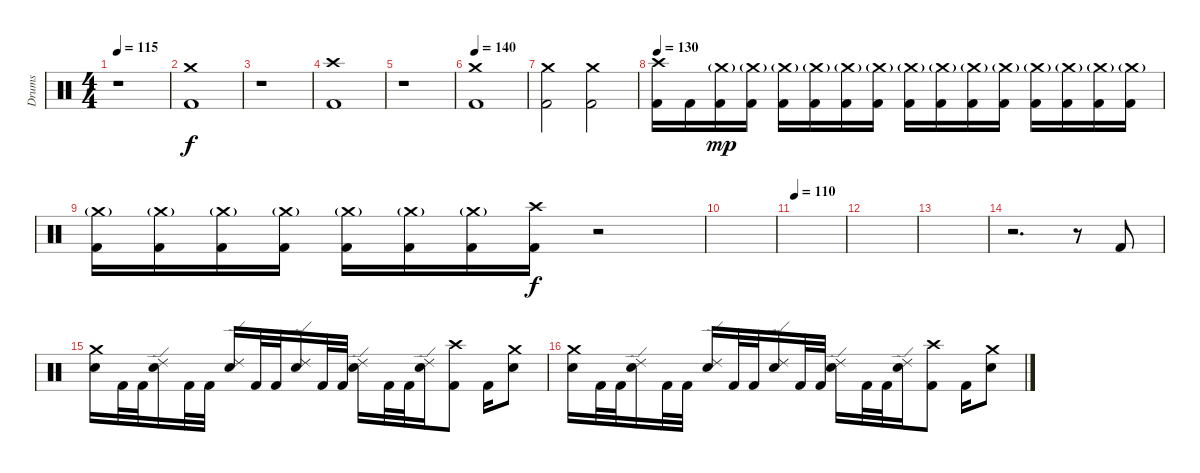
\track ("Drums" "Drums") {instrument percussion}
\staff {score}
\articulation defaults
\ts (4 4)
\tempo 115
\clef neutral
\ks c
r.1{dy f} |
("Crash medium (hit)" "Kick (hit) 2").1 |
r.1 |
("Crash high (hit)" "Kick (hit) 2").1 |
r.1 |
\tempo 140
("Crash medium (hit)" "Kick (hit) 2").1 |
("Crash medium (hit)" "Kick (hit) 2").2 ("Crash medium (hit)" "Kick (hit) 2").2 |
\tempo 130
("Crash high (hit)" "Kick (hit) 2").16 "Kick (hit) 2".16 ("Crash medium (hit)"{g} "Kick (hit) 2").16{dy mp} ("Crash medium (hit)"{g} "Kick (hit) 2").16 ("Crash medium (hit)"{g} "Kick (hit) 2").16 ("Crash medium (hit)"{g} "Kick (hit) 2").16 ("Crash medium (hit)"{g} "Kick (hit) 2").16 ("Crash medium (hit)"{g} "Kick (hit) 2").16 ("Crash medium (hit)"{g} "Kick (hit) 2").16 ("Crash medium (hit)"{g} "Kick (hit) 2").16 ("Crash medium (hit)"{g} "Kick (hit) 2").16 ("Crash medium (hit)"{g} "Kick (hit) 2").16 ("Crash medium (hit)"{g} "Kick (hit) 2").16 ("Crash medium (hit)"{g} "Kick (hit) 2").16 ("Crash medium (hit)"{g} "Kick (hit) 2").16 ("Crash medium (hit)"{g} "Kick (hit) 2").16 |
("Crash medium (hit)"{g} "Kick (hit) 2").16 ("Crash medium (hit)"{g} "Kick (hit) 2").16 ("Crash medium (hit)"{g} "Kick (hit) 2").16 ("Crash medium (hit)"{g} "Kick (hit) 2").16 ("Crash medium (hit)"{g} "Kick (hit) 2").16 ("Crash medium (hit)"{g} "Kick (hit) 2").16 ("Crash medium (hit)"{g} "Kick (hit) 2").16 ("Crash high (hit)" "Kick (hit) 2").16{dy f} r.2 |
|
\tempo 110
|
|
|
r.2{d} r.8 "Kick (hit) 2".8 |
("Crash medium (hit)" "Snare (hit) 2").16 "Kick (hit) 2".32 "Kick (hit) 2".32 ("Ride (edge) 2" "Snare (hit) 2").16 "Kick (hit) 2".32 "Kick (hit) 2".32 ("Ride (edge) 2" "Snare (hit) 2").16 "Kick (hit) 2".32 "Kick (hit) 2".32 ("Ride (edge) 2" "Snare (hit) 2").16 "Kick (hit) 2".32 "Kick (hit) 2".32 ("Ride (edge) 2" "Snare (hit) 2").16 "Kick (hit) 2".32 "Kick (hit) 2".32 ("Ride (edge) 2" "Snare (hit) 2").16 ("Crash high (hit)" "Kick (hit) 2").8 "Kick (hit) 2".16 ("Crash medium (hit)" "Snare (hit) 2").8 |
("Crash medium (hit)" "Snare (hit) 2").16 "Kick (hit) 2".32 "Kick (hit) 2".32 ("Ride (edge) 2" "Snare (hit) 2").16 "Kick (hit) 2".32 "Kick (hit) 2".32 ("Ride (edge) 2" "Snare (hit) 2").16 "Kick (hit) 2".32 "Kick (hit) 2".32 ("Ride (edge) 2" "Snare (hit) 2").16 "Kick (hit) 2".32 "Kick (hit) 2".32 ("Ride (edge) 2" "Snare (hit) 2").16 "Kick (hit) 2".32 "Kick (hit) 2".32 ("Ride (edge) 2" "Snare (hit) 2").16 ("Crash high (hit)" "Kick (hit) 2").8 "Kick (hit) 2".16 ("Crash medium (hit)" "Snare (hit) 2").8
